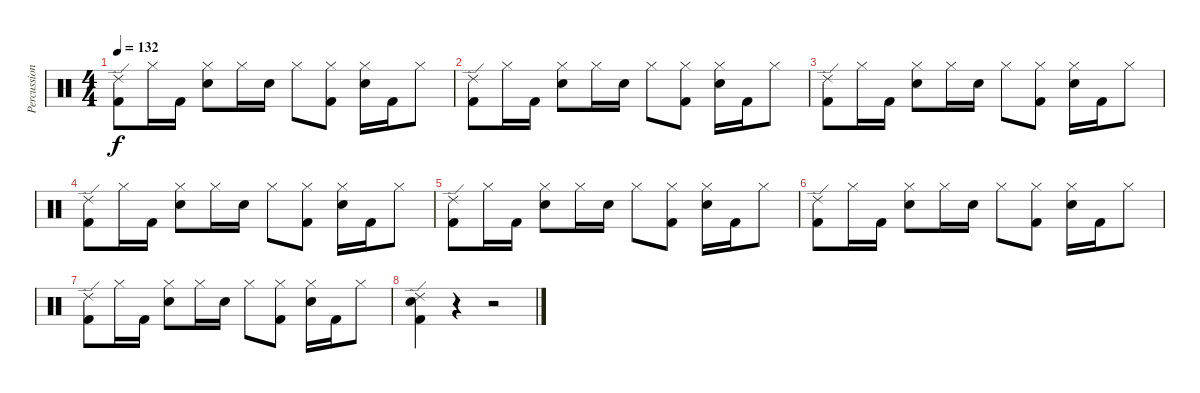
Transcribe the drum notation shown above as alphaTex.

\track ("Percussions" "Percussion") {instrument percussion}
\staff {score}
\articulation defaults
\ts (4 4)
\tempo 132
\clef neutral
\ks c
("Ride (edge) 2" "Kick (hit) 2").8{dy f} "Hi-Hat (closed)".16 "Kick (hit) 2".16 ("Hi-Hat (closed)" "Snare (hit) 2").8 "Hi-Hat (closed)".16 "Snare (hit) 2".16 "Hi-Hat (closed)".8 ("Hi-Hat (closed)" "Kick (hit) 2").8 ("Hi-Hat (closed)" "Snare (hit) 2").16 "Kick (hit) 2".16 "Hi-Hat (closed)".8 |
("Ride (edge) 2" "Kick (hit) 2").8 "Hi-Hat (closed)".16 "Kick (hit) 2".16 ("Hi-Hat (closed)" "Snare (hit) 2").8 "Hi-Hat (closed)".16 "Snare (hit) 2".16 "Hi-Hat (closed)".8 ("Hi-Hat (closed)" "Kick (hit) 2").8 ("Hi-Hat (closed)" "Snare (hit) 2").16 "Kick (hit) 2".16 "Hi-Hat (closed)".8 |
("Ride (edge) 2" "Kick (hit) 2").8 "Hi-Hat (closed)".16 "Kick (hit) 2".16 ("Hi-Hat (closed)" "Snare (hit) 2").8 "Hi-Hat (closed)".16 "Snare (hit) 2".16 "Hi-Hat (closed)".8 ("Hi-Hat (closed)" "Kick (hit) 2").8 ("Hi-Hat (closed)" "Snare (hit) 2").16 "Kick (hit) 2".16 "Hi-Hat (closed)".8 |
("Ride (edge) 2" "Kick (hit) 2").8 "Hi-Hat (closed)".16 "Kick (hit) 2".16 ("Hi-Hat (closed)" "Snare (hit) 2").8 "Hi-Hat (closed)".16 "Snare (hit) 2".16 "Hi-Hat (closed)".8 ("Hi-Hat (closed)" "Kick (hit) 2").8 ("Hi-Hat (closed)" "Snare (hit) 2").16 "Kick (hit) 2".16 "Hi-Hat (closed)".8 |
("Ride (edge) 2" "Kick (hit) 2").8 "Hi-Hat (closed)".16 "Kick (hit) 2".16 ("Hi-Hat (closed)" "Snare (hit) 2").8 "Hi-Hat (closed)".16 "Snare (hit) 2".16 "Hi-Hat (closed)".8 ("Hi-Hat (closed)" "Kick (hit) 2").8 ("Hi-Hat (closed)" "Snare (hit) 2").16 "Kick (hit) 2".16 "Hi-Hat (closed)".8 |
("Ride (edge) 2" "Kick (hit) 2").8 "Hi-Hat (closed)".16 "Kick (hit) 2".16 ("Hi-Hat (closed)" "Snare (hit) 2").8 "Hi-Hat (closed)".16 "Snare (hit) 2".16 "Hi-Hat (closed)".8 ("Hi-Hat (closed)" "Kick (hit) 2").8 ("Hi-Hat (closed)" "Snare (hit) 2").16 "Kick (hit) 2".16 "Hi-Hat (closed)".8 |
("Ride (edge) 2" "Kick (hit) 2").8 "Hi-Hat (closed)".16 "Kick (hit) 2".16 ("Hi-Hat (closed)" "Snare (hit) 2").8 "Hi-Hat (closed)".16 "Snare (hit) 2".16 "Hi-Hat (closed)".8 ("Hi-Hat (closed)" "Kick (hit) 2").8 ("Hi-Hat (closed)" "Snare (hit) 2").16 "Kick (hit) 2".16 "Hi-Hat (closed)".8 |
("Ride (edge) 2" "Snare (hit) 2" "Kick (hit) 2").4 r.4 r.2
